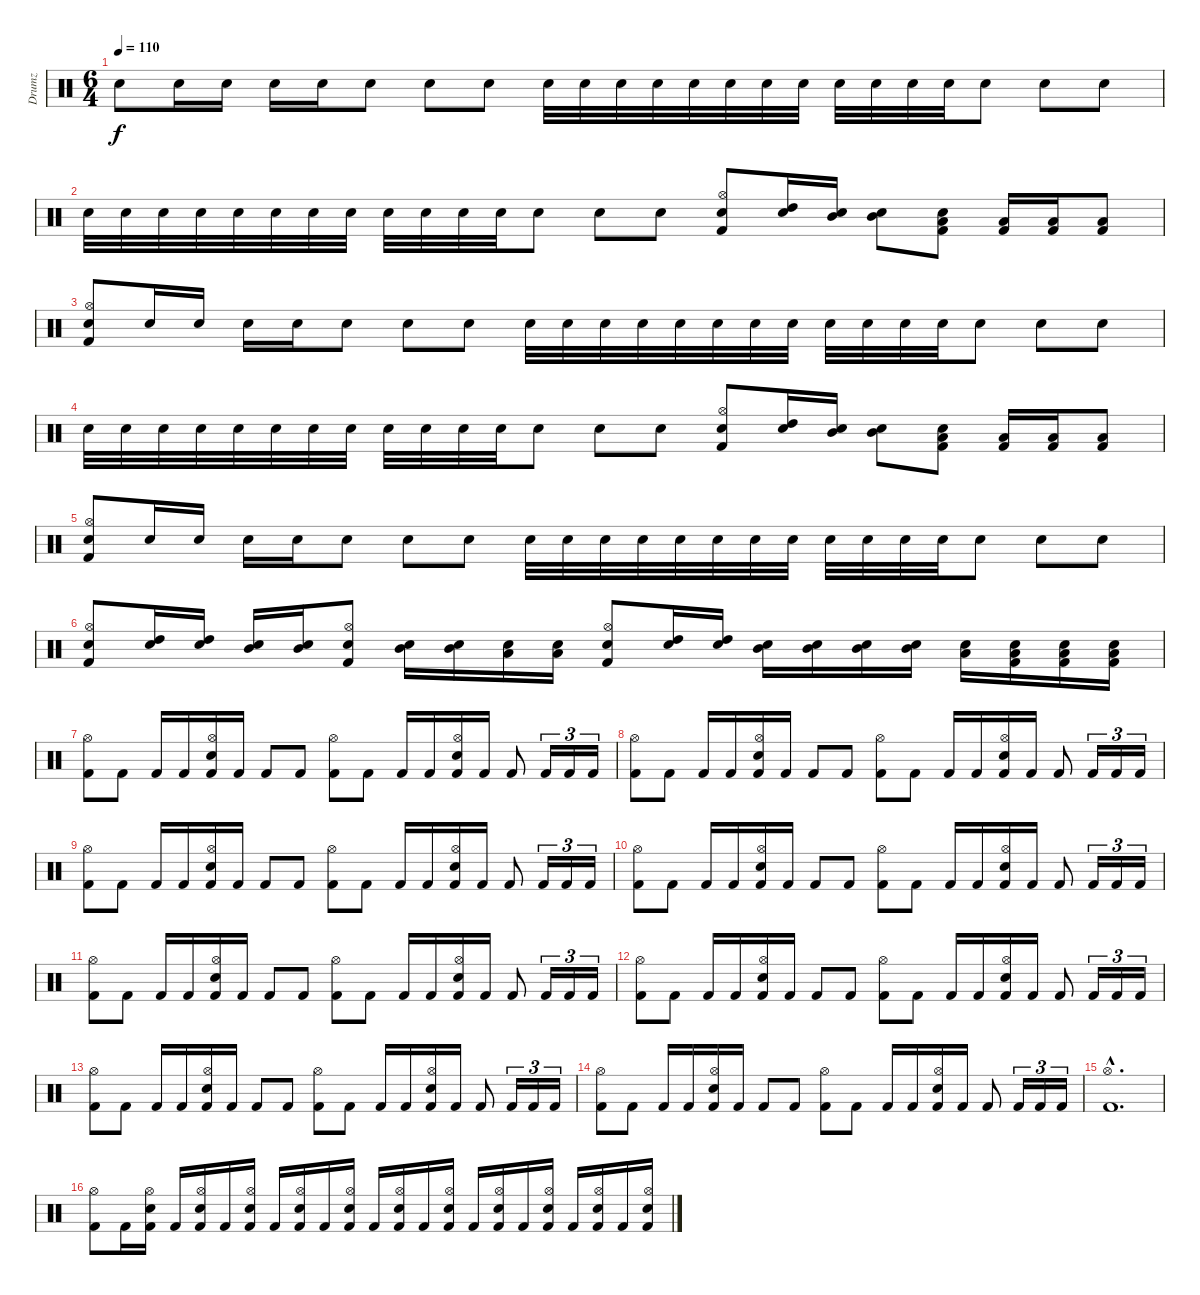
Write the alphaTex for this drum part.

\track ("Drumz" "Drumz") {instrument percussion}
\staff {score}
\articulation defaults
\ts (6 4)
\tempo 110
\clef neutral
\ks c "Snare (hit) 2".8{dy f} "Snare (hit) 2".16 "Snare (hit) 2".16 "Snare (hit) 2".16 "Snare (hit) 2".16 "Snare (hit) 2".8 "Snare (hit) 2".8 "Snare (hit) 2".8 "Snare (hit) 2".32 "Snare (hit) 2".32 "Snare (hit) 2".32 "Snare (hit) 2".32 "Snare (hit) 2".32 "Snare (hit) 2".32 "Snare (hit) 2".32 "Snare (hit) 2".32 "Snare (hit) 2".32 "Snare (hit) 2".32 "Snare (hit) 2".32 "Snare (hit) 2".32 "Snare (hit) 2".8 "Snare (hit) 2".8 "Snare (hit) 2".8
|
"Snare (hit) 2".32 "Snare (hit) 2".32 "Snare (hit) 2".32 "Snare (hit) 2".32 "Snare (hit) 2".32 "Snare (hit) 2".32 "Snare (hit) 2".32 "Snare (hit) 2".32 "Snare (hit) 2".32 "Snare (hit) 2".32 "Snare (hit) 2".32 "Snare (hit) 2".32 "Snare (hit) 2".8 "Snare (hit) 2".8 "Snare (hit) 2".8 ("Hi-Hat (open)" "Snare (hit) 2" "Kick (hit) 2").8 ("High Tom (hit)" "Snare (hit) 2").16 ("Mid Tom (hit)" "Snare (hit) 2").16 ("Mid Tom (hit)" "Snare (hit) 2").8 ("Low Tom (hit)" "Snare (hit) 2" "Kick (hit) 2").8 ("Low Tom (hit)" "Kick (hit) 2").16 ("Low Tom (hit)" "Kick (hit) 2").16 ("Low Tom (hit)" "Kick (hit) 2").8 |
("Hi-Hat (open)" "Snare (hit) 2" "Kick (hit) 2").8 "Snare (hit) 2".16 "Snare (hit) 2".16 "Snare (hit) 2".16 "Snare (hit) 2".16 "Snare (hit) 2".8 "Snare (hit) 2".8 "Snare (hit) 2".8 "Snare (hit) 2".32 "Snare (hit) 2".32 "Snare (hit) 2".32 "Snare (hit) 2".32 "Snare (hit) 2".32 "Snare (hit) 2".32 "Snare (hit) 2".32 "Snare (hit) 2".32 "Snare (hit) 2".32 "Snare (hit) 2".32 "Snare (hit) 2".32 "Snare (hit) 2".32 "Snare (hit) 2".8 "Snare (hit) 2".8 "Snare (hit) 2".8 |
"Snare (hit) 2".32 "Snare (hit) 2".32 "Snare (hit) 2".32 "Snare (hit) 2".32 "Snare (hit) 2".32 "Snare (hit) 2".32 "Snare (hit) 2".32 "Snare (hit) 2".32 "Snare (hit) 2".32 "Snare (hit) 2".32 "Snare (hit) 2".32 "Snare (hit) 2".32 "Snare (hit) 2".8 "Snare (hit) 2".8 "Snare (hit) 2".8 ("Hi-Hat (open)" "Snare (hit) 2" "Kick (hit) 2").8 ("High Tom (hit)" "Snare (hit) 2").16 ("Mid Tom (hit)" "Snare (hit) 2").16 ("Mid Tom (hit)" "Snare (hit) 2").8 ("Low Tom (hit)" "Snare (hit) 2" "Kick (hit) 2").8 ("Low Tom (hit)" "Kick (hit) 2").16 ("Low Tom (hit)" "Kick (hit) 2").16 ("Low Tom (hit)" "Kick (hit) 2").8 |
("Hi-Hat (open)" "Snare (hit) 2" "Kick (hit) 2").8 "Snare (hit) 2".16 "Snare (hit) 2".16 "Snare (hit) 2".16 "Snare (hit) 2".16 "Snare (hit) 2".8 "Snare (hit) 2".8 "Snare (hit) 2".8 "Snare (hit) 2".32 "Snare (hit) 2".32 "Snare (hit) 2".32 "Snare (hit) 2".32 "Snare (hit) 2".32 "Snare (hit) 2".32 "Snare (hit) 2".32 "Snare (hit) 2".32 "Snare (hit) 2".32 "Snare (hit) 2".32 "Snare (hit) 2".32 "Snare (hit) 2".32 "Snare (hit) 2".8 "Snare (hit) 2".8 "Snare (hit) 2".8 |
("Hi-Hat (open)" "Snare (hit) 2" "Kick (hit) 2").8 ("High Tom (hit)" "Snare (hit) 2").16 ("High Tom (hit)" "Snare (hit) 2").16 ("Mid Tom (hit)" "Snare (hit) 2").16 ("Mid Tom (hit)" "Snare (hit) 2").16 ("Hi-Hat (open)" "Snare (hit) 2" "Kick (hit) 2").8 ("Mid Tom (hit)" "Snare (hit) 2").16 ("Mid Tom (hit)" "Snare (hit) 2").16 ("Low Tom (hit)" "Snare (hit) 2").16 ("Low Tom (hit)" "Snare (hit) 2").16 ("Hi-Hat (open)" "Snare (hit) 2" "Kick (hit) 2").8 ("High Tom (hit)" "Snare (hit) 2").16 ("High Tom (hit)" "Snare (hit) 2").16 ("Mid Tom (hit)" "Snare (hit) 2").16 ("Mid Tom (hit)" "Snare (hit) 2").16 ("Mid Tom (hit)" "Snare (hit) 2").16 ("Mid Tom (hit)" "Snare (hit) 2").16 ("Low Tom (hit)" "Snare (hit) 2").16 ("Low Tom (hit)" "Snare (hit) 2" "Kick (hit) 2").16 ("Low Tom (hit)" "Snare (hit) 2" "Kick (hit) 2").16 ("Low Tom (hit)" "Snare (hit) 2" "Kick (hit) 2").16 |
("Hi-Hat (open)" "Kick (hit) 2").8 "Kick (hit) 2".8 "Kick (hit) 2".16 "Kick (hit) 2".16 ("Hi-Hat (open)" "Snare (hit) 2" "Kick (hit) 2").16 "Kick (hit) 2".16 "Kick (hit) 2".8 "Kick (hit) 2".8 ("Hi-Hat (open)" "Kick (hit) 2").8 "Kick (hit) 2".8 "Kick (hit) 2".16 "Kick (hit) 2".16 ("Hi-Hat (open)" "Snare (hit) 2" "Kick (hit) 2").16 "Kick (hit) 2".16 "Kick (hit) 2".8 "Kick (hit) 2".16{tu (3 2)} "Kick (hit) 2".16{tu (3 2)} "Kick (hit) 2".16{tu (3 2)} |
("Hi-Hat (open)" "Kick (hit) 2").8 "Kick (hit) 2".8 "Kick (hit) 2".16 "Kick (hit) 2".16 ("Hi-Hat (open)" "Snare (hit) 2" "Kick (hit) 2").16 "Kick (hit) 2".16 "Kick (hit) 2".8 "Kick (hit) 2".8 ("Hi-Hat (open)" "Kick (hit) 2").8 "Kick (hit) 2".8 "Kick (hit) 2".16 "Kick (hit) 2".16 ("Hi-Hat (open)" "Snare (hit) 2" "Kick (hit) 2").16 "Kick (hit) 2".16 "Kick (hit) 2".8 "Kick (hit) 2".16{tu (3 2)} "Kick (hit) 2".16{tu (3 2)} "Kick (hit) 2".16{tu (3 2)} |
("Hi-Hat (open)" "Kick (hit) 2").8 "Kick (hit) 2".8 "Kick (hit) 2".16 "Kick (hit) 2".16 ("Hi-Hat (open)" "Snare (hit) 2" "Kick (hit) 2").16 "Kick (hit) 2".16 "Kick (hit) 2".8 "Kick (hit) 2".8 ("Hi-Hat (open)" "Kick (hit) 2").8 "Kick (hit) 2".8 "Kick (hit) 2".16 "Kick (hit) 2".16 ("Hi-Hat (open)" "Snare (hit) 2" "Kick (hit) 2").16 "Kick (hit) 2".16 "Kick (hit) 2".8 "Kick (hit) 2".16{tu (3 2)} "Kick (hit) 2".16{tu (3 2)} "Kick (hit) 2".16{tu (3 2)} |
("Hi-Hat (open)" "Kick (hit) 2").8 "Kick (hit) 2".8 "Kick (hit) 2".16 "Kick (hit) 2".16 ("Hi-Hat (open)" "Snare (hit) 2" "Kick (hit) 2").16 "Kick (hit) 2".16 "Kick (hit) 2".8 "Kick (hit) 2".8 ("Hi-Hat (open)" "Kick (hit) 2").8 "Kick (hit) 2".8 "Kick (hit) 2".16 "Kick (hit) 2".16 ("Hi-Hat (open)" "Snare (hit) 2" "Kick (hit) 2").16 "Kick (hit) 2".16 "Kick (hit) 2".8 "Kick (hit) 2".16{tu (3 2)} "Kick (hit) 2".16{tu (3 2)} "Kick (hit) 2".16{tu (3 2)} |
("Hi-Hat (open)" "Kick (hit) 2").8 "Kick (hit) 2".8 "Kick (hit) 2".16 "Kick (hit) 2".16 ("Hi-Hat (open)" "Snare (hit) 2" "Kick (hit) 2").16 "Kick (hit) 2".16 "Kick (hit) 2".8 "Kick (hit) 2".8 ("Hi-Hat (open)" "Kick (hit) 2").8 "Kick (hit) 2".8 "Kick (hit) 2".16 "Kick (hit) 2".16 ("Hi-Hat (open)" "Snare (hit) 2" "Kick (hit) 2").16 "Kick (hit) 2".16 "Kick (hit) 2".8 "Kick (hit) 2".16{tu (3 2)} "Kick (hit) 2".16{tu (3 2)} "Kick (hit) 2".16{tu (3 2)} |
("Hi-Hat (open)" "Kick (hit) 2").8 "Kick (hit) 2".8 "Kick (hit) 2".16 "Kick (hit) 2".16 ("Hi-Hat (open)" "Snare (hit) 2" "Kick (hit) 2").16 "Kick (hit) 2".16 "Kick (hit) 2".8 "Kick (hit) 2".8 ("Hi-Hat (open)" "Kick (hit) 2").8 "Kick (hit) 2".8 "Kick (hit) 2".16 "Kick (hit) 2".16 ("Hi-Hat (open)" "Snare (hit) 2" "Kick (hit) 2").16 "Kick (hit) 2".16 "Kick (hit) 2".8 "Kick (hit) 2".16{tu (3 2)} "Kick (hit) 2".16{tu (3 2)} "Kick (hit) 2".16{tu (3 2)} |
("Hi-Hat (open)" "Kick (hit) 2").8 "Kick (hit) 2".8 "Kick (hit) 2".16 "Kick (hit) 2".16 ("Hi-Hat (open)" "Snare (hit) 2" "Kick (hit) 2").16 "Kick (hit) 2".16 "Kick (hit) 2".8 "Kick (hit) 2".8 ("Hi-Hat (open)" "Kick (hit) 2").8 "Kick (hit) 2".8 "Kick (hit) 2".16 "Kick (hit) 2".16 ("Hi-Hat (open)" "Snare (hit) 2" "Kick (hit) 2").16 "Kick (hit) 2".16 "Kick (hit) 2".8 "Kick (hit) 2".16{tu (3 2)} "Kick (hit) 2".16{tu (3 2)} "Kick (hit) 2".16{tu (3 2)} |
("Hi-Hat (open)" "Kick (hit) 2").8 "Kick (hit) 2".8 "Kick (hit) 2".16 "Kick (hit) 2".16 ("Hi-Hat (open)" "Snare (hit) 2" "Kick (hit) 2").16 "Kick (hit) 2".16 "Kick (hit) 2".8 "Kick (hit) 2".8 ("Hi-Hat (open)" "Kick (hit) 2").8 "Kick (hit) 2".8 "Kick (hit) 2".16 "Kick (hit) 2".16 ("Hi-Hat (open)" "Snare (hit) 2" "Kick (hit) 2").16 "Kick (hit) 2".16 "Kick (hit) 2".8 "Kick (hit) 2".16{tu (3 2)} "Kick (hit) 2".16{tu (3 2)} "Kick (hit) 2".16{tu (3 2)} |
("Hi-Hat (open)"{hac} "Kick (hit) 2"{hac}).1{d} |
("Hi-Hat (open)" "Kick (hit) 2").8 "Kick (hit) 2".16 ("Hi-Hat (open)" "Snare (hit) 2" "Kick (hit) 2").16 "Kick (hit) 2".16 ("Hi-Hat (open)" "Snare (hit) 2" "Kick (hit) 2").16 "Kick (hit) 2".16 ("Hi-Hat (open)" "Snare (hit) 2" "Kick (hit) 2").16 "Kick (hit) 2".16 ("Hi-Hat (open)" "Snare (hit) 2" "Kick (hit) 2").16 "Kick (hit) 2".16 ("Hi-Hat (open)" "Snare (hit) 2" "Kick (hit) 2").16 "Kick (hit) 2".16 ("Hi-Hat (open)" "Snare (hit) 2" "Kick (hit) 2").16 "Kick (hit) 2".16 ("Hi-Hat (open)" "Snare (hit) 2" "Kick (hit) 2").16 "Kick (hit) 2".16 ("Hi-Hat (open)" "Snare (hit) 2" "Kick (hit) 2").16 "Kick (hit) 2".16 ("Hi-Hat (open)" "Snare (hit) 2" "Kick (hit) 2").16 "Kick (hit) 2".16 ("Hi-Hat (open)" "Snare (hit) 2" "Kick (hit) 2").16 "Kick (hit) 2".16 ("Hi-Hat (open)" "Snare (hit) 2" "Kick (hit) 2").16
